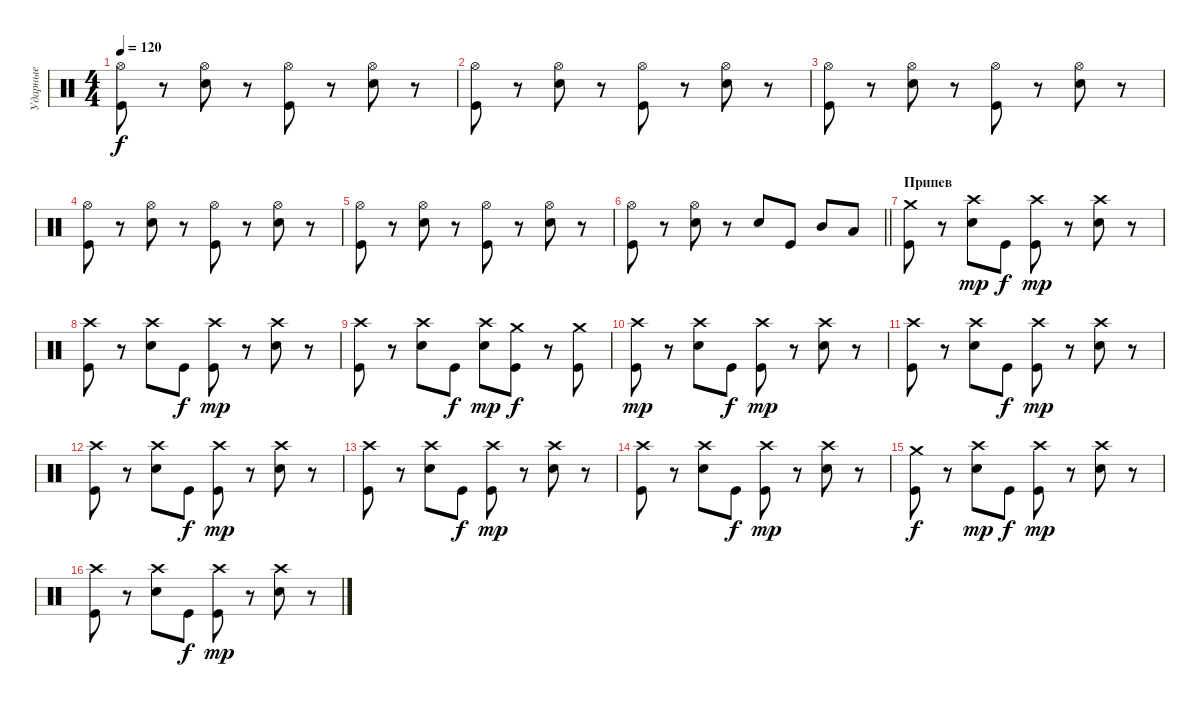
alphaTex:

\track ("Ударные" "Ударные") {instrument percussion}
\staff {score}
\articulation defaults
\ts (4 4)
\tempo 120
\clef neutral
\ks c
("Hi-Hat (open)" "Kick (hit)").8{dy f} r.8 ("Hi-Hat (open)" "Electric Snare (hit)").8 r.8 ("Hi-Hat (open)" "Kick (hit)").8 r.8 ("Hi-Hat (open)" "Electric Snare (hit)").8 r.8 |
("Hi-Hat (open)" "Kick (hit)").8 r.8 ("Hi-Hat (open)" "Electric Snare (hit)").8 r.8 ("Hi-Hat (open)" "Kick (hit)").8 r.8 ("Hi-Hat (open)" "Electric Snare (hit)").8 r.8 |
("Hi-Hat (open)" "Kick (hit)").8 r.8 ("Hi-Hat (open)" "Electric Snare (hit)").8 r.8 ("Hi-Hat (open)" "Kick (hit)").8 r.8 ("Hi-Hat (open)" "Electric Snare (hit)").8 r.8 |
("Hi-Hat (open)" "Kick (hit)").8 r.8 ("Hi-Hat (open)" "Electric Snare (hit)").8 r.8 ("Hi-Hat (open)" "Kick (hit)").8 r.8 ("Hi-Hat (open)" "Electric Snare (hit)").8 r.8 |
("Hi-Hat (open)" "Kick (hit)").8 r.8 ("Hi-Hat (open)" "Electric Snare (hit)").8 r.8 ("Hi-Hat (open)" "Kick (hit)").8 r.8 ("Hi-Hat (open)" "Electric Snare (hit)").8 r.8 |
\barLineRight lightlight
("Hi-Hat (open)" "Kick (hit)").8 r.8 ("Hi-Hat (open)" "Electric Snare (hit)").8 r.8 "Electric Snare (hit)".8 "Kick (hit)".8 "Mid Tom (hit)".8 "Low Tom (hit)".8 |
\section ("" "Припев")
("Crash medium (hit)" "Kick (hit)").8 r.8 ("Crash high (hit)" "Electric Snare (hit)").8{dy mp} "Kick (hit)".8{dy f} ("Crash high (hit)" "Kick (hit)").8{dy mp} r.8 ("Crash high (hit)" "Electric Snare (hit)").8 r.8 |
("Crash high (hit)" "Kick (hit)").8 r.8 ("Crash high (hit)" "Electric Snare (hit)").8 "Kick (hit)".8{dy f} ("Crash high (hit)" "Kick (hit)").8{dy mp} r.8 ("Crash high (hit)" "Electric Snare (hit)").8 r.8 |
("Crash high (hit)" "Kick (hit)").8 r.8 ("Crash high (hit)" "Electric Snare (hit)").8 "Kick (hit)".8{dy f} ("Crash high (hit)" "Electric Snare (hit)").8{dy mp} ("Crash medium (hit)" "Kick (hit)").8{dy f} r.8 ("Crash medium (hit)" "Kick (hit)").8 |
("Crash high (hit)" "Kick (hit)").8{dy mp} r.8 ("Crash high (hit)" "Electric Snare (hit)").8 "Kick (hit)".8{dy f} ("Crash high (hit)" "Kick (hit)").8{dy mp} r.8 ("Crash high (hit)" "Electric Snare (hit)").8 r.8 |
("Crash high (hit)" "Kick (hit)").8 r.8 ("Crash high (hit)" "Electric Snare (hit)").8 "Kick (hit)".8{dy f} ("Crash high (hit)" "Kick (hit)").8{dy mp} r.8 ("Crash high (hit)" "Electric Snare (hit)").8 r.8 |
("Crash high (hit)" "Kick (hit)").8 r.8 ("Crash high (hit)" "Electric Snare (hit)").8 "Kick (hit)".8{dy f} ("Crash high (hit)" "Kick (hit)").8{dy mp} r.8 ("Crash high (hit)" "Electric Snare (hit)").8 r.8 |
("Crash high (hit)" "Kick (hit)").8 r.8 ("Crash high (hit)" "Electric Snare (hit)").8 "Kick (hit)".8{dy f} ("Crash high (hit)" "Kick (hit)").8{dy mp} r.8 ("Crash high (hit)" "Electric Snare (hit)").8 r.8 |
("Crash high (hit)" "Kick (hit)").8 r.8 ("Crash high (hit)" "Electric Snare (hit)").8 "Kick (hit)".8{dy f} ("Crash high (hit)" "Kick (hit)").8{dy mp} r.8 ("Crash high (hit)" "Electric Snare (hit)").8 r.8 |
("Crash medium (hit)" "Kick (hit)").8{dy f} r.8 ("Crash high (hit)" "Electric Snare (hit)").8{dy mp} "Kick (hit)".8{dy f} ("Crash high (hit)" "Kick (hit)").8{dy mp} r.8 ("Crash high (hit)" "Electric Snare (hit)").8 r.8 |
("Crash high (hit)" "Kick (hit)").8 r.8 ("Crash high (hit)" "Electric Snare (hit)").8 "Kick (hit)".8{dy f} ("Crash high (hit)" "Kick (hit)").8{dy mp} r.8 ("Crash high (hit)" "Electric Snare (hit)").8 r.8
